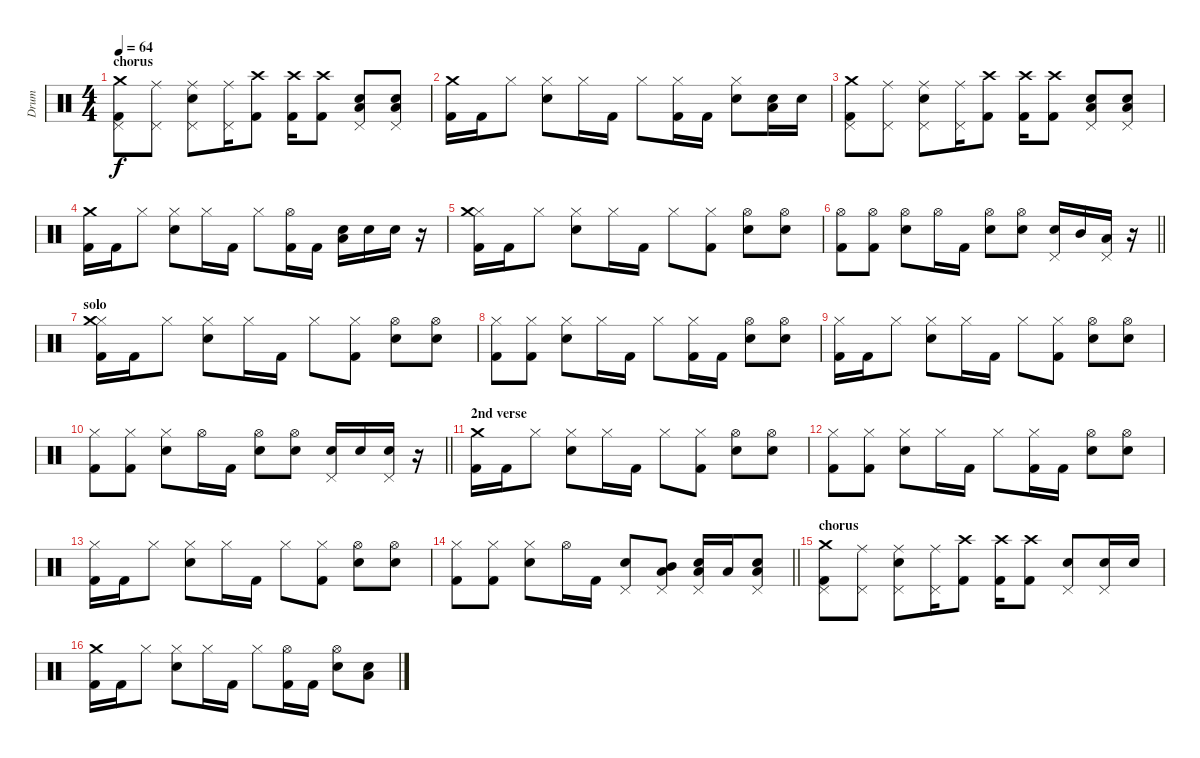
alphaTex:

\track ("Drum" "Drum") {instrument percussion}
\staff {score}
\articulation defaults
\ts (4 4)
\section ("" "chorus")
\tempo 64
\clef neutral
\ks c
("Pedal Hi-Hat (hit)" "Kick (hit) 2" "Crash medium (hit)").8{dy f} ("Pedal Hi-Hat (hit)" "Ride (middle)").8 ("Electric Snare (hit)" "Pedal Hi-Hat (hit)" "Ride (middle)").8 ("Pedal Hi-Hat (hit)" "Ride (middle)").16 ("Kick (hit) 2" "Crash high (hit)").8 ("Kick (hit) 2" "Crash high (hit)").16 ("Kick (hit) 2" "Crash high (hit)").8 ("Electric Snare (hit)" "Pedal Hi-Hat (hit)" "Low Floor Tom (hit)").8 ("Electric Snare (hit)" "Pedal Hi-Hat (hit)" "Low Floor Tom (hit)").8 |
("Kick (hit) 2" "Crash medium (hit)").16 "Kick (hit) 2".16 "Hi-Hat (closed)".8 ("Electric Snare (hit)" "Hi-Hat (closed)").8 "Hi-Hat (closed)".16 "Kick (hit) 2".16 "Hi-Hat (closed)".8 ("Hi-Hat (closed)" "Kick (hit) 2").16 "Kick (hit) 2".16 ("Electric Snare (hit)" "Hi-Hat (closed)").8 ("Electric Snare (hit)" "Low Floor Tom (hit)").16 "Electric Snare (hit)".16 |
("Pedal Hi-Hat (hit)" "Kick (hit) 2" "Crash medium (hit)").8 ("Pedal Hi-Hat (hit)" "Ride (middle)").8 ("Electric Snare (hit)" "Pedal Hi-Hat (hit)" "Ride (middle)").8 ("Pedal Hi-Hat (hit)" "Ride (middle)").16 ("Kick (hit) 2" "Crash high (hit)").8 ("Kick (hit) 2" "Crash high (hit)").16 ("Kick (hit) 2" "Crash high (hit)").8 ("Electric Snare (hit)" "Pedal Hi-Hat (hit)" "Low Tom (hit)").8 ("Electric Snare (hit)" "Pedal Hi-Hat (hit)" "Low Floor Tom (hit)").8 |
("Kick (hit) 2" "Crash medium (hit)").16 "Kick (hit) 2".16 "Hi-Hat (closed)".8 ("Electric Snare (hit)" "Hi-Hat (closed)").8 "Hi-Hat (closed)".16 "Kick (hit) 2".16 "Hi-Hat (closed)".8 ("Hi-Hat (open)" "Kick (hit) 2").16 "Kick (hit) 2".16 ("Electric Snare (hit)" "Low Floor Tom (hit)").16 "Electric Snare (hit)".16 "Electric Snare (hit)".16 r.16 |
("Hi-Hat (closed)" "Kick (hit) 2" "Crash medium (hit)").16 "Kick (hit) 2".16 "Hi-Hat (closed)".8 ("Electric Snare (hit)" "Hi-Hat (closed)").8 "Hi-Hat (closed)".16 "Kick (hit) 2".16 "Hi-Hat (closed)".8 ("Hi-Hat (closed)" "Kick (hit) 2").8 ("Electric Snare (hit)" "Hi-Hat (open)").8 ("Electric Snare (hit)" "Hi-Hat (open)").8 |
\barLineRight lightlight
("Hi-Hat (open)" "Kick (hit) 2").8 ("Hi-Hat (open)" "Kick (hit) 2").8 ("Electric Snare (hit)" "Hi-Hat (open)").8 "Hi-Hat (open)".16 "Kick (hit) 2".16 ("Electric Snare (hit)" "Hi-Hat (open)").8 ("Electric Snare (hit)" "Hi-Hat (open)").8 ("Electric Snare (hit)" "Pedal Hi-Hat (hit)").16 "Mid Tom (hit)".16 ("Pedal Hi-Hat (hit)" "Low Tom (hit)").16 r.16 |
\section ("" "solo")
("Hi-Hat (closed)" "Kick (hit) 2" "Crash medium (hit)").16 "Kick (hit) 2".16 "Hi-Hat (closed)".8 ("Electric Snare (hit)" "Hi-Hat (closed)").8 "Hi-Hat (closed)".16 "Kick (hit) 2".16 "Hi-Hat (closed)".8 ("Hi-Hat (closed)" "Kick (hit) 2").8 ("Electric Snare (hit)" "Hi-Hat (open)").8 ("Electric Snare (hit)" "Hi-Hat (open)").8 |
("Hi-Hat (closed)" "Kick (hit) 2").8 ("Hi-Hat (closed)" "Kick (hit) 2").8 ("Electric Snare (hit)" "Hi-Hat (closed)").8 "Hi-Hat (closed)".16 "Kick (hit) 2".16 "Hi-Hat (closed)".8 ("Hi-Hat (closed)" "Kick (hit) 2").16 "Kick (hit) 2".16 ("Electric Snare (hit)" "Hi-Hat (open)").8 ("Electric Snare (hit)" "Hi-Hat (open)").8 |
("Hi-Hat (closed)" "Kick (hit) 2").16 "Kick (hit) 2".16 "Hi-Hat (closed)".8 ("Electric Snare (hit)" "Hi-Hat (closed)").8 "Hi-Hat (closed)".16 "Kick (hit) 2".16 "Hi-Hat (closed)".8 ("Hi-Hat (closed)" "Kick (hit) 2").8 ("Electric Snare (hit)" "Hi-Hat (open)").8 ("Electric Snare (hit)" "Hi-Hat (open)").8 |
\barLineRight lightlight
("Hi-Hat (closed)" "Kick (hit) 2").8 ("Hi-Hat (closed)" "Kick (hit) 2").8 ("Electric Snare (hit)" "Hi-Hat (closed)").8 "Hi-Hat (open)".16 "Kick (hit) 2".16 ("Electric Snare (hit)" "Hi-Hat (open)").8 ("Electric Snare (hit)" "Hi-Hat (open)").8 ("Electric Snare (hit)" "Pedal Hi-Hat (hit)").16 "Electric Snare (hit)".16 ("Electric Snare (hit)" "Pedal Hi-Hat (hit)").16 r.16 |
\section ("" "2nd verse")
("Kick (hit) 2" "Crash medium (hit)").16 "Kick (hit) 2".16 "Hi-Hat (closed)".8 ("Electric Snare (hit)" "Hi-Hat (closed)").8 "Hi-Hat (closed)".16 "Kick (hit) 2".16 "Hi-Hat (closed)".8 ("Hi-Hat (closed)" "Kick (hit) 2").8 ("Electric Snare (hit)" "Hi-Hat (open)").8 ("Electric Snare (hit)" "Hi-Hat (open)").8 |
("Hi-Hat (closed)" "Kick (hit) 2").8 ("Hi-Hat (closed)" "Kick (hit) 2").8 ("Electric Snare (hit)" "Hi-Hat (closed)").8 "Hi-Hat (closed)".16 "Kick (hit) 2".16 "Hi-Hat (closed)".8 ("Hi-Hat (closed)" "Kick (hit) 2").16 "Kick (hit) 2".16 ("Electric Snare (hit)" "Hi-Hat (open)").8 ("Electric Snare (hit)" "Hi-Hat (open)").8 |
("Hi-Hat (closed)" "Kick (hit) 2").16 "Kick (hit) 2".16 "Hi-Hat (closed)".8 ("Electric Snare (hit)" "Hi-Hat (closed)").8 "Hi-Hat (closed)".16 "Kick (hit) 2".16 "Hi-Hat (closed)".8 ("Hi-Hat (closed)" "Kick (hit) 2").8 ("Electric Snare (hit)" "Hi-Hat (open)").8 ("Electric Snare (hit)" "Hi-Hat (open)").8 |
\barLineRight lightlight
("Hi-Hat (closed)" "Kick (hit) 2").8 ("Hi-Hat (closed)" "Kick (hit) 2").8 ("Electric Snare (hit)" "Hi-Hat (closed)").8 "Hi-Hat (open)".16 "Kick (hit) 2".16 ("Electric Snare (hit)" "Pedal Hi-Hat (hit)").8 ("Pedal Hi-Hat (hit)" "Low Tom (hit)" "Mid Tom (hit)").8 ("Electric Snare (hit)" "Pedal Hi-Hat (hit)" "Low Tom (hit)").16 "Low Floor Tom (hit)".16 ("Electric Snare (hit)" "Pedal Hi-Hat (hit)" "Low Tom (hit)").8 |
\section ("" "chorus")
("Pedal Hi-Hat (hit)" "Kick (hit) 2" "Crash medium (hit)").8 ("Pedal Hi-Hat (hit)" "Ride (middle)").8 ("Electric Snare (hit)" "Pedal Hi-Hat (hit)" "Ride (middle)").8 ("Pedal Hi-Hat (hit)" "Ride (middle)").16 ("Kick (hit) 2" "Crash high (hit)").8 ("Kick (hit) 2" "Crash high (hit)").16 ("Kick (hit) 2" "Crash high (hit)").8 ("Electric Snare (hit)" "Pedal Hi-Hat (hit)").8 ("Electric Snare (hit)" "Pedal Hi-Hat (hit)").16 "Electric Snare (hit)".16 |
("Kick (hit) 2" "Crash medium (hit)").16 "Kick (hit) 2".16 "Hi-Hat (closed)".8 ("Electric Snare (hit)" "Hi-Hat (closed)").8 "Hi-Hat (closed)".16 "Kick (hit) 2".16 "Hi-Hat (closed)".8 ("Hi-Hat (open)" "Kick (hit) 2").16 "Kick (hit) 2".16 ("Electric Snare (hit)" "Hi-Hat (open)").8 ("Electric Snare (hit)" "Low Tom (hit)").8
